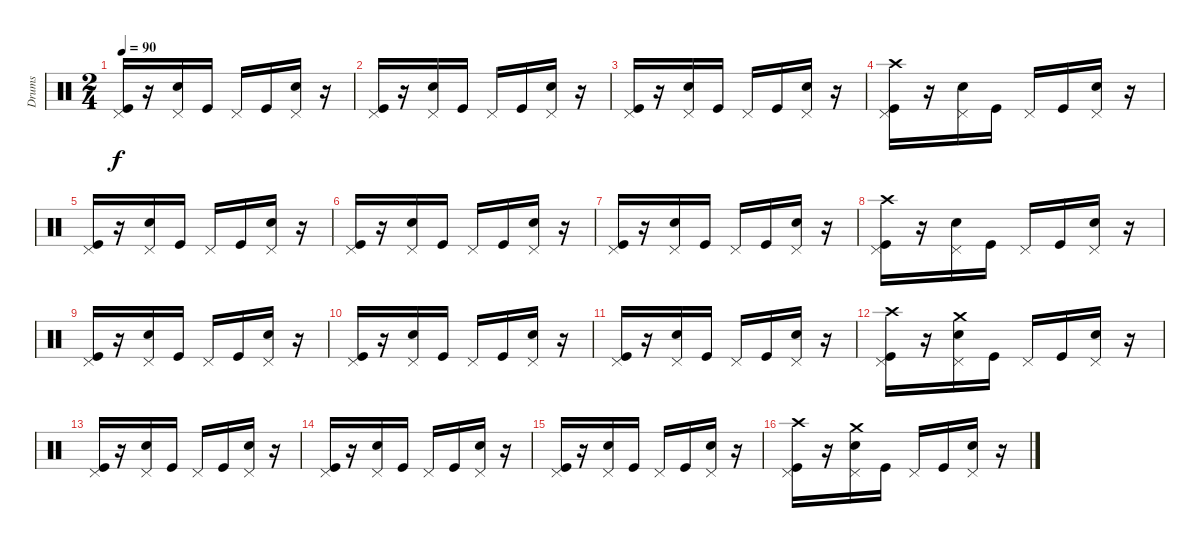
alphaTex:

\track ("Drums" "Drums") {instrument percussion}
\staff {score}
\articulation defaults
\ts (2 4)
\tempo 90
\clef neutral
\ks c
("Kick (hit)" "Pedal Hi-Hat (hit)").16{dy f} r.16 ("Snare (hit) 2" "Pedal Hi-Hat (hit)").16 "Kick (hit)".16 "Pedal Hi-Hat (hit)".16 "Kick (hit)".16 ("Snare (hit) 2" "Pedal Hi-Hat (hit)").16 r.16 |
("Kick (hit)" "Pedal Hi-Hat (hit)").16 r.16 ("Snare (hit) 2" "Pedal Hi-Hat (hit)").16 "Kick (hit)".16 "Pedal Hi-Hat (hit)".16 "Kick (hit)".16 ("Snare (hit) 2" "Pedal Hi-Hat (hit)").16 r.16 |
("Kick (hit)" "Pedal Hi-Hat (hit)").16 r.16 ("Snare (hit) 2" "Pedal Hi-Hat (hit)").16 "Kick (hit)".16 "Pedal Hi-Hat (hit)".16 "Kick (hit)".16 ("Snare (hit) 2" "Pedal Hi-Hat (hit)").16 r.16 |
("Crash high (hit)" "Kick (hit)" "Pedal Hi-Hat (hit)").16 r.16 ("Snare (hit) 2" "Pedal Hi-Hat (hit)").16 "Kick (hit)".16 "Pedal Hi-Hat (hit)".16 "Kick (hit)".16 ("Snare (hit) 2" "Pedal Hi-Hat (hit)").16 r.16 |
("Kick (hit)" "Pedal Hi-Hat (hit)").16 r.16 ("Snare (hit) 2" "Pedal Hi-Hat (hit)").16 "Kick (hit)".16 "Pedal Hi-Hat (hit)".16 "Kick (hit)".16 ("Snare (hit) 2" "Pedal Hi-Hat (hit)").16 r.16 |
("Kick (hit)" "Pedal Hi-Hat (hit)").16 r.16 ("Snare (hit) 2" "Pedal Hi-Hat (hit)").16 "Kick (hit)".16 "Pedal Hi-Hat (hit)".16 "Kick (hit)".16 ("Snare (hit) 2" "Pedal Hi-Hat (hit)").16 r.16 |
("Kick (hit)" "Pedal Hi-Hat (hit)").16 r.16 ("Snare (hit) 2" "Pedal Hi-Hat (hit)").16 "Kick (hit)".16 "Pedal Hi-Hat (hit)".16 "Kick (hit)".16 ("Snare (hit) 2" "Pedal Hi-Hat (hit)").16 r.16 |
("Crash high (hit)" "Kick (hit)" "Pedal Hi-Hat (hit)").16 r.16 ("Snare (hit) 2" "Pedal Hi-Hat (hit)").16 "Kick (hit)".16 "Pedal Hi-Hat (hit)".16 "Kick (hit)".16 ("Snare (hit) 2" "Pedal Hi-Hat (hit)").16 r.16 |
("Kick (hit)" "Pedal Hi-Hat (hit)").16 r.16 ("Snare (hit) 2" "Pedal Hi-Hat (hit)").16 "Kick (hit)".16 "Pedal Hi-Hat (hit)".16 "Kick (hit)".16 ("Snare (hit) 2" "Pedal Hi-Hat (hit)").16 r.16 |
("Kick (hit)" "Pedal Hi-Hat (hit)").16 r.16 ("Snare (hit) 2" "Pedal Hi-Hat (hit)").16 "Kick (hit)".16 "Pedal Hi-Hat (hit)".16 "Kick (hit)".16 ("Snare (hit) 2" "Pedal Hi-Hat (hit)").16 r.16 |
("Kick (hit)" "Pedal Hi-Hat (hit)").16 r.16 ("Snare (hit) 2" "Pedal Hi-Hat (hit)").16 "Kick (hit)".16 "Pedal Hi-Hat (hit)".16 "Kick (hit)".16 ("Snare (hit) 2" "Pedal Hi-Hat (hit)").16 r.16 |
("Crash high (hit)" "Kick (hit)" "Pedal Hi-Hat (hit)").16 r.16 ("Crash medium (hit)" "Snare (hit) 2" "Pedal Hi-Hat (hit)").16 "Kick (hit)".16 "Pedal Hi-Hat (hit)".16 "Kick (hit)".16 ("Snare (hit) 2" "Pedal Hi-Hat (hit)").16 r.16 |
("Kick (hit)" "Pedal Hi-Hat (hit)").16 r.16 ("Snare (hit) 2" "Pedal Hi-Hat (hit)").16 "Kick (hit)".16 "Pedal Hi-Hat (hit)".16 "Kick (hit)".16 ("Snare (hit) 2" "Pedal Hi-Hat (hit)").16 r.16 |
("Kick (hit)" "Pedal Hi-Hat (hit)").16 r.16 ("Snare (hit) 2" "Pedal Hi-Hat (hit)").16 "Kick (hit)".16 "Pedal Hi-Hat (hit)".16 "Kick (hit)".16 ("Snare (hit) 2" "Pedal Hi-Hat (hit)").16 r.16 |
("Kick (hit)" "Pedal Hi-Hat (hit)").16 r.16 ("Snare (hit) 2" "Pedal Hi-Hat (hit)").16 "Kick (hit)".16 "Pedal Hi-Hat (hit)".16 "Kick (hit)".16 ("Snare (hit) 2" "Pedal Hi-Hat (hit)").16 r.16 |
("Crash high (hit)" "Kick (hit)" "Pedal Hi-Hat (hit)").16 r.16 ("Crash medium (hit)" "Snare (hit) 2" "Pedal Hi-Hat (hit)").16 "Kick (hit)".16 "Pedal Hi-Hat (hit)".16 "Kick (hit)".16 ("Snare (hit) 2" "Pedal Hi-Hat (hit)").16 r.16
